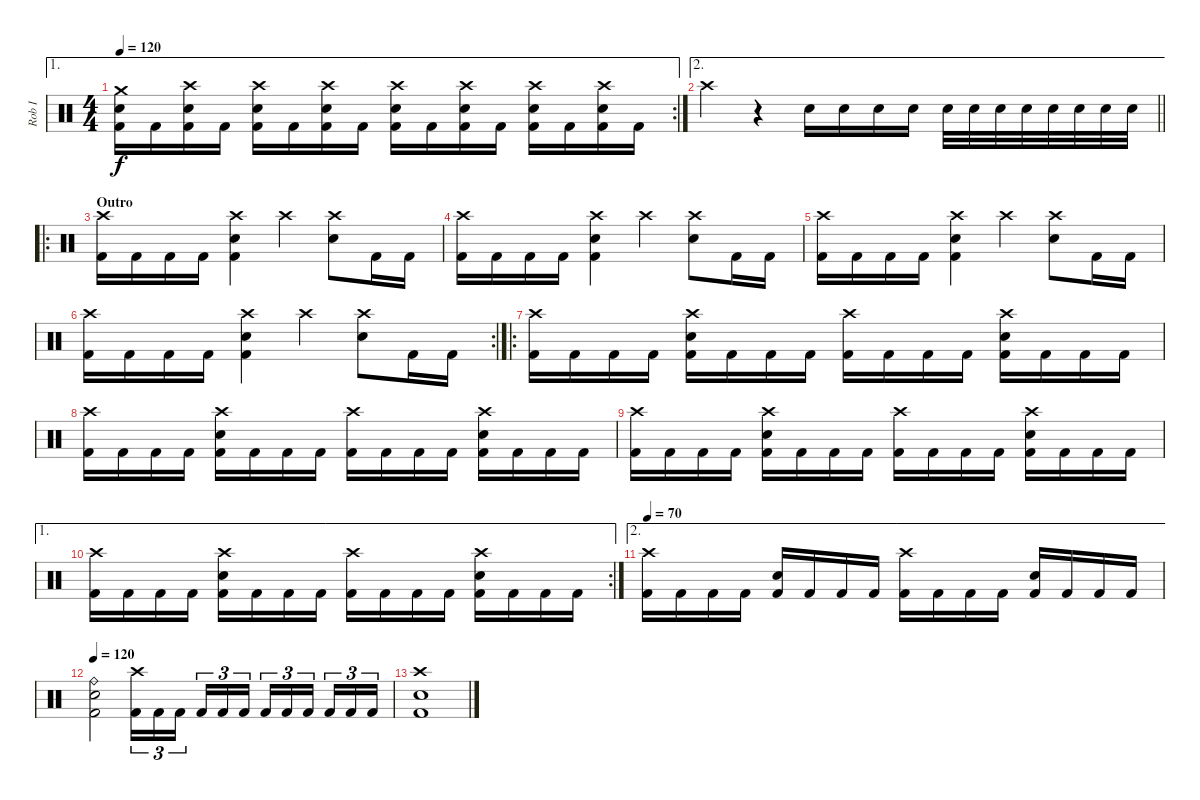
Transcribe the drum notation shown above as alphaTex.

\track ("Rob I" "Rob I") {instrument percussion}
\staff {score}
\articulation defaults
\ae 1
\rc 2
\ts (4 4)
\tempo 120
\clef neutral
\ks c
("Kick (hit) 2" "Crash medium (hit)" "Electric Snare (hit)").16{dy f} "Kick (hit) 2".16 ("Kick (hit) 2" "Crash high (hit)" "Electric Snare (hit)").16 "Kick (hit) 2".16 ("Kick (hit) 2" "Crash high (hit)" "Electric Snare (hit)").16 "Kick (hit) 2".16 ("Kick (hit) 2" "Crash high (hit)" "Electric Snare (hit)").16 "Kick (hit) 2".16 ("Kick (hit) 2" "Crash high (hit)" "Electric Snare (hit)").16 "Kick (hit) 2".16 ("Kick (hit) 2" "Crash high (hit)" "Electric Snare (hit)").16 "Kick (hit) 2".16 ("Kick (hit) 2" "Crash high (hit)" "Electric Snare (hit)").16 "Kick (hit) 2".16 ("Kick (hit) 2" "Crash high (hit)" "Electric Snare (hit)").16 "Kick (hit) 2".16 |
\ae 2
\barLineRight lightlight "Crash high (hit)".4
r.4 "Electric Snare (hit)".16 "Electric Snare (hit)".16 "Electric Snare (hit)".16 "Electric Snare (hit)".16 "Electric Snare (hit)".32 "Electric Snare (hit)".32 "Electric Snare (hit)".32 "Electric Snare (hit)".32 "Electric Snare (hit)".32 "Electric Snare (hit)".32 "Electric Snare (hit)".32 "Electric Snare (hit)".32 |
\ro
\section ("" "Outro")
("Crash high (hit)" "Kick (hit) 2").16 "Kick (hit) 2".16 "Kick (hit) 2".16 "Kick (hit) 2".16 ("Crash high (hit)" "Electric Snare (hit)" "Kick (hit) 2").4 "Crash high (hit)".4 ("Crash high (hit)" "Electric Snare (hit)").8 "Kick (hit) 2".16 "Kick (hit) 2".16 |
("Crash high (hit)" "Kick (hit) 2").16 "Kick (hit) 2".16 "Kick (hit) 2".16 "Kick (hit) 2".16 ("Crash high (hit)" "Electric Snare (hit)" "Kick (hit) 2").4 "Crash high (hit)".4 ("Crash high (hit)" "Electric Snare (hit)").8 "Kick (hit) 2".16 "Kick (hit) 2".16 |
("Crash high (hit)" "Kick (hit) 2").16 "Kick (hit) 2".16 "Kick (hit) 2".16 "Kick (hit) 2".16 ("Crash high (hit)" "Electric Snare (hit)" "Kick (hit) 2").4 "Crash high (hit)".4 ("Crash high (hit)" "Electric Snare (hit)").8 "Kick (hit) 2".16 "Kick (hit) 2".16 |
\rc 2
("Crash high (hit)" "Kick (hit) 2").16 "Kick (hit) 2".16 "Kick (hit) 2".16 "Kick (hit) 2".16 ("Crash high (hit)" "Electric Snare (hit)" "Kick (hit) 2").4 "Crash high (hit)".4 ("Crash high (hit)" "Electric Snare (hit)").8 "Kick (hit) 2".16 "Kick (hit) 2".16 |
\ro
("Crash high (hit)" "Kick (hit) 2").16 "Kick (hit) 2".16 "Kick (hit) 2".16 "Kick (hit) 2".16 ("Crash high (hit)" "Electric Snare (hit)" "Kick (hit) 2").16 "Kick (hit) 2".16 "Kick (hit) 2".16 "Kick (hit) 2".16 ("Crash high (hit)" "Kick (hit) 2").16 "Kick (hit) 2".16 "Kick (hit) 2".16 "Kick (hit) 2".16 ("Crash high (hit)" "Electric Snare (hit)" "Kick (hit) 2").16 "Kick (hit) 2".16 "Kick (hit) 2".16 "Kick (hit) 2".16 |
("Crash high (hit)" "Kick (hit) 2").16 "Kick (hit) 2".16 "Kick (hit) 2".16 "Kick (hit) 2".16 ("Crash high (hit)" "Electric Snare (hit)" "Kick (hit) 2").16 "Kick (hit) 2".16 "Kick (hit) 2".16 "Kick (hit) 2".16 ("Crash high (hit)" "Kick (hit) 2").16 "Kick (hit) 2".16 "Kick (hit) 2".16 "Kick (hit) 2".16 ("Crash high (hit)" "Electric Snare (hit)" "Kick (hit) 2").16 "Kick (hit) 2".16 "Kick (hit) 2".16 "Kick (hit) 2".16 |
("Crash high (hit)" "Kick (hit) 2").16 "Kick (hit) 2".16 "Kick (hit) 2".16 "Kick (hit) 2".16 ("Crash high (hit)" "Electric Snare (hit)" "Kick (hit) 2").16 "Kick (hit) 2".16 "Kick (hit) 2".16 "Kick (hit) 2".16 ("Crash high (hit)" "Kick (hit) 2").16 "Kick (hit) 2".16 "Kick (hit) 2".16 "Kick (hit) 2".16 ("Crash high (hit)" "Electric Snare (hit)" "Kick (hit) 2").16 "Kick (hit) 2".16 "Kick (hit) 2".16 "Kick (hit) 2".16 |
\ae 1
\rc 2
("Crash high (hit)" "Kick (hit) 2").16 "Kick (hit) 2".16 "Kick (hit) 2".16 "Kick (hit) 2".16 ("Crash high (hit)" "Electric Snare (hit)" "Kick (hit) 2").16 "Kick (hit) 2".16 "Kick (hit) 2".16 "Kick (hit) 2".16 ("Crash high (hit)" "Kick (hit) 2").16 "Kick (hit) 2".16 "Kick (hit) 2".16 "Kick (hit) 2".16 ("Crash high (hit)" "Electric Snare (hit)" "Kick (hit) 2").16 "Kick (hit) 2".16 "Kick (hit) 2".16 "Kick (hit) 2".16 |
\ae 2
\tempo 70
("Crash high (hit)" "Kick (hit) 2").16 "Kick (hit) 2".16 "Kick (hit) 2".16 "Kick (hit) 2".16 ("Electric Snare (hit)" "Kick (hit) 2").16 "Kick (hit) 2".16 "Kick (hit) 2".16 "Kick (hit) 2".16 ("Crash high (hit)" "Kick (hit) 2").16 "Kick (hit) 2".16 "Kick (hit) 2".16 "Kick (hit) 2".16 ("Electric Snare (hit)" "Kick (hit) 2").16 "Kick (hit) 2".16 "Kick (hit) 2".16 "Kick (hit) 2".16 |
\tempo 120
("Ride (bell)" "Kick (hit) 2" "Electric Snare (hit)").2 ("Kick (hit) 2" "Crash high (hit)").16{tu (3 2)} "Kick (hit) 2".16{tu (3 2)} "Kick (hit) 2".16{tu (3 2) beam splitsecondary} "Kick (hit) 2".16{tu (3 2)} "Kick (hit) 2".16{tu (3 2)} "Kick (hit) 2".16{tu (3 2)} "Kick (hit) 2".16{tu (3 2)} "Kick (hit) 2".16{tu (3 2)} "Kick (hit) 2".16{tu (3 2) beam splitsecondary} "Kick (hit) 2".16{tu (3 2)} "Kick (hit) 2".16{tu (3 2)} "Kick (hit) 2".16{tu (3 2)} |
("Crash high (hit)" "Kick (hit) 2" "Electric Snare (hit)").1
